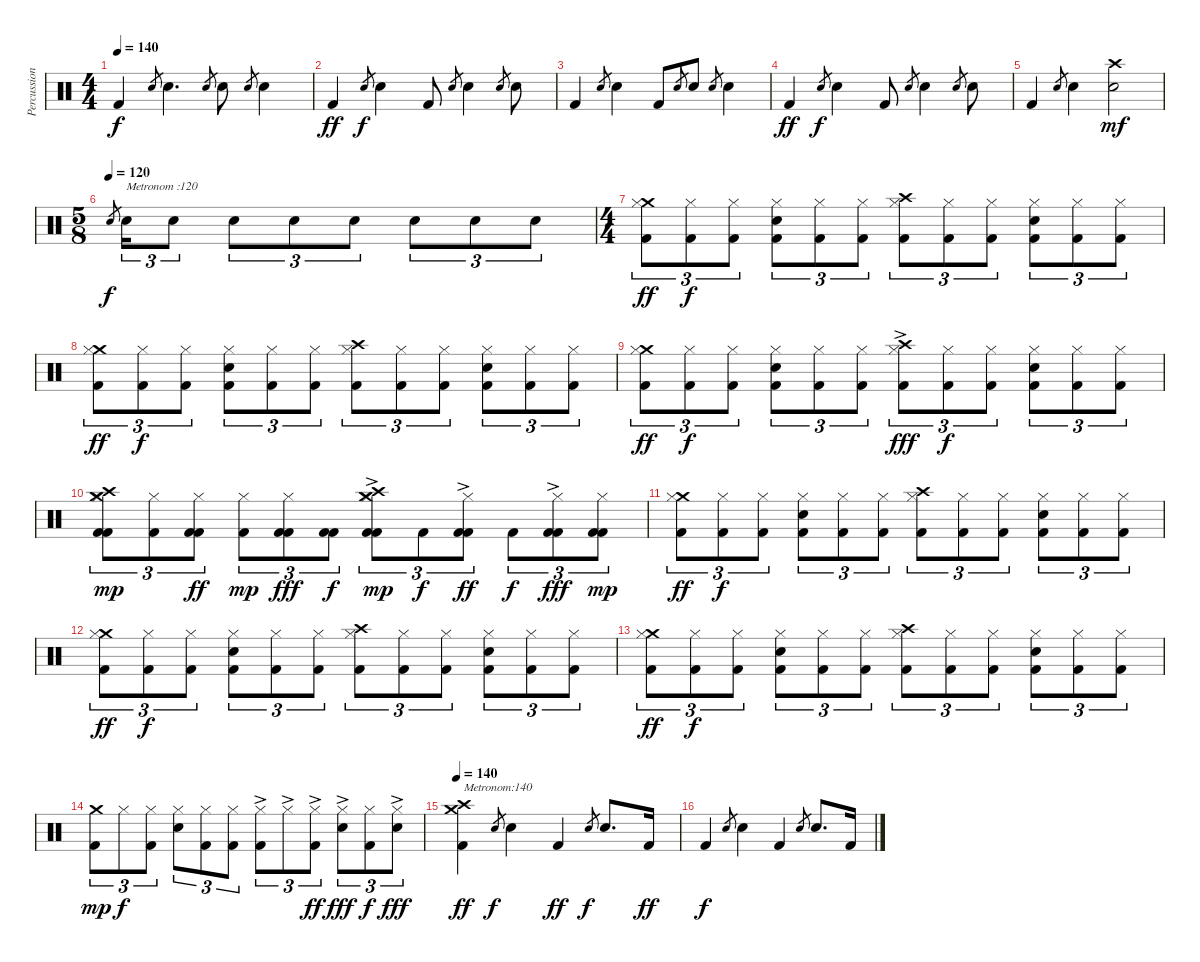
\track ("Percussion" "Percussion") {instrument percussion}
\staff {score}
\articulation defaults
\ts (4 4)
\tempo 140
\clef neutral
\ks c "Kick (hit) 2".4{dy f} "Electric Snare (hit)".8{gr} "Electric Snare (hit)".4{d} "Electric Snare (hit)".8{gr} "Electric Snare (hit)".8 "Electric Snare (hit)".8{gr} "Electric Snare (hit)".4
|
"Kick (hit) 2".4{dy ff} "Electric Snare (hit)".8{gr dy f} "Electric Snare (hit)".4 "Kick (hit) 2".8 "Electric Snare (hit)".8{gr} "Electric Snare (hit)".4 "Electric Snare (hit)".8{gr} "Electric Snare (hit)".8 |
"Kick (hit) 2".4 "Electric Snare (hit)".8{gr} "Electric Snare (hit)".4 "Kick (hit) 2".8 "Electric Snare (hit)".8{gr} "Electric Snare (hit)".8 "Electric Snare (hit)".8{gr} "Electric Snare (hit)".4 |
"Kick (hit) 2".4{dy ff} "Electric Snare (hit)".8{gr dy f} "Electric Snare (hit)".4 "Kick (hit) 2".8 "Electric Snare (hit)".8{gr} "Electric Snare (hit)".4 "Electric Snare (hit)".8{gr} "Electric Snare (hit)".8 |
"Kick (hit) 2".4 "Electric Snare (hit)".8{gr} "Electric Snare (hit)".4 ("Crash high (hit)" "Electric Snare (hit)").2{dy mf} |
\ts (5 8)
\tempo (120)
"Electric Snare (hit)".8{gr dy f} "Electric Snare (hit)".16{tu (3 2) txt "Metronom :120"} "Electric Snare (hit)".8{tu (3 2)} "Electric Snare (hit)".8{tu (3 2)} "Electric Snare (hit)".8{tu (3 2)} "Electric Snare (hit)".8{tu (3 2)} "Electric Snare (hit)".8{tu (3 2)} "Electric Snare (hit)".8{tu (3 2)} "Electric Snare (hit)".8{tu (3 2)} |
\ts (4 4)
("Crash medium (hit)" "Hi-Hat (closed)" "Kick (hit) 2").8{tu (3 2) dy ff} ("Hi-Hat (closed)" "Kick (hit) 2").8{tu (3 2) dy f} ("Hi-Hat (closed)" "Kick (hit) 2").8{tu (3 2)} ("Electric Snare (hit)" "Hi-Hat (closed)" "Kick (hit) 2").8{tu (3 2)} ("Hi-Hat (closed)" "Kick (hit) 2").8{tu (3 2)} ("Hi-Hat (closed)" "Kick (hit) 2").8{tu (3 2)} ("Crash high (hit)" "Hi-Hat (closed)" "Kick (hit) 2").8{tu (3 2)} ("Hi-Hat (closed)" "Kick (hit) 2").8{tu (3 2)} ("Hi-Hat (closed)" "Kick (hit) 2").8{tu (3 2)} ("Electric Snare (hit)" "Hi-Hat (closed)" "Kick (hit) 2").8{tu (3 2)} ("Hi-Hat (closed)" "Kick (hit) 2").8{tu (3 2)} ("Hi-Hat (closed)" "Kick (hit) 2").8{tu (3 2)} |
("Crash medium (hit)" "Hi-Hat (closed)" "Kick (hit) 2").8{tu (3 2) dy ff} ("Hi-Hat (closed)" "Kick (hit) 2").8{tu (3 2) dy f} ("Hi-Hat (closed)" "Kick (hit) 2").8{tu (3 2)} ("Electric Snare (hit)" "Hi-Hat (closed)" "Kick (hit) 2").8{tu (3 2)} ("Hi-Hat (closed)" "Kick (hit) 2").8{tu (3 2)} ("Hi-Hat (closed)" "Kick (hit) 2").8{tu (3 2)} ("Crash high (hit)" "Hi-Hat (closed)" "Kick (hit) 2").8{tu (3 2)} ("Hi-Hat (closed)" "Kick (hit) 2").8{tu (3 2)} ("Hi-Hat (closed)" "Kick (hit) 2").8{tu (3 2)} ("Electric Snare (hit)" "Hi-Hat (closed)" "Kick (hit) 2").8{tu (3 2)} ("Hi-Hat (closed)" "Kick (hit) 2").8{tu (3 2)} ("Hi-Hat (closed)" "Kick (hit) 2").8{tu (3 2)} |
("Crash medium (hit)" "Hi-Hat (closed)" "Kick (hit) 2").8{tu (3 2) dy ff} ("Hi-Hat (closed)" "Kick (hit) 2").8{tu (3 2) dy f} ("Hi-Hat (closed)" "Kick (hit) 2").8{tu (3 2)} ("Electric Snare (hit)" "Hi-Hat (closed)" "Kick (hit) 2").8{tu (3 2)} ("Hi-Hat (closed)" "Kick (hit) 2").8{tu (3 2)} ("Hi-Hat (closed)" "Kick (hit) 2").8{tu (3 2)} ("Crash high (hit)" "Hi-Hat (closed)"{ac} "Kick (hit) 2").8{tu (3 2) dy fff} ("Hi-Hat (closed)" "Kick (hit) 2").8{tu (3 2) dy f} ("Hi-Hat (closed)" "Kick (hit) 2").8{tu (3 2)} ("Electric Snare (hit)" "Hi-Hat (closed)" "Kick (hit) 2").8{tu (3 2)} ("Hi-Hat (closed)" "Kick (hit) 2").8{tu (3 2)} ("Hi-Hat (closed)" "Kick (hit) 2").8{tu (3 2)} |
("Crash high (hit)" "Crash medium (hit)" "Hi-Hat (closed)" "Kick (hit) 2" "Kick (hit) 2").8{tu (3 2) dy mp} ("Hi-Hat (closed)" "Kick (hit) 2").8{tu (3 2)} ("Hi-Hat (closed)" "Kick (hit) 2" "Kick (hit) 2").8{tu (3 2) dy ff} ("Hi-Hat (closed)" "Kick (hit) 2").8{tu (3 2) dy mp} ("Hi-Hat (closed)" "Kick (hit) 2" "Kick (hit) 2").8{tu (3 2) dy fff} ("Kick (hit) 2" "Kick (hit) 2").8{tu (3 2) dy f} ("Crash medium (hit)" "Crash high (hit)" "Hi-Hat (closed)"{ac} "Kick (hit) 2" "Kick (hit) 2").8{tu (3 2) dy mp} "Kick (hit) 2".8{tu (3 2) dy f} ("Hi-Hat (closed)"{ac} "Kick (hit) 2" "Kick (hit) 2").8{tu (3 2) dy ff} "Kick (hit) 2".8{tu (3 2) dy f} ("Hi-Hat (closed)"{ac} "Kick (hit) 2" "Kick (hit) 2").8{tu (3 2) dy fff} ("Hi-Hat (closed)" "Kick (hit) 2" "Kick (hit) 2").8{tu (3 2) dy mp} |
("Crash medium (hit)" "Hi-Hat (closed)" "Kick (hit) 2").8{tu (3 2) dy ff} ("Hi-Hat (closed)" "Kick (hit) 2").8{tu (3 2) dy f} ("Hi-Hat (closed)" "Kick (hit) 2").8{tu (3 2)} ("Electric Snare (hit)" "Hi-Hat (closed)" "Kick (hit) 2").8{tu (3 2)} ("Hi-Hat (closed)" "Kick (hit) 2").8{tu (3 2)} ("Hi-Hat (closed)" "Kick (hit) 2").8{tu (3 2)} ("Crash high (hit)" "Hi-Hat (closed)" "Kick (hit) 2").8{tu (3 2)} ("Hi-Hat (closed)" "Kick (hit) 2").8{tu (3 2)} ("Hi-Hat (closed)" "Kick (hit) 2").8{tu (3 2)} ("Electric Snare (hit)" "Hi-Hat (closed)" "Kick (hit) 2").8{tu (3 2)} ("Hi-Hat (closed)" "Kick (hit) 2").8{tu (3 2)} ("Hi-Hat (closed)" "Kick (hit) 2").8{tu (3 2)} |
("Crash medium (hit)" "Hi-Hat (closed)" "Kick (hit) 2").8{tu (3 2) dy ff} ("Hi-Hat (closed)" "Kick (hit) 2").8{tu (3 2) dy f} ("Hi-Hat (closed)" "Kick (hit) 2").8{tu (3 2)} ("Electric Snare (hit)" "Hi-Hat (closed)" "Kick (hit) 2").8{tu (3 2)} ("Hi-Hat (closed)" "Kick (hit) 2").8{tu (3 2)} ("Hi-Hat (closed)" "Kick (hit) 2").8{tu (3 2)} ("Crash high (hit)" "Hi-Hat (closed)" "Kick (hit) 2").8{tu (3 2)} ("Hi-Hat (closed)" "Kick (hit) 2").8{tu (3 2)} ("Hi-Hat (closed)" "Kick (hit) 2").8{tu (3 2)} ("Electric Snare (hit)" "Hi-Hat (closed)" "Kick (hit) 2").8{tu (3 2)} ("Hi-Hat (closed)" "Kick (hit) 2").8{tu (3 2)} ("Hi-Hat (closed)" "Kick (hit) 2").8{tu (3 2)} |
("Crash medium (hit)" "Hi-Hat (closed)" "Kick (hit) 2").8{tu (3 2) dy ff} ("Hi-Hat (closed)" "Kick (hit) 2").8{tu (3 2) dy f} ("Hi-Hat (closed)" "Kick (hit) 2").8{tu (3 2)} ("Electric Snare (hit)" "Hi-Hat (closed)" "Kick (hit) 2").8{tu (3 2)} ("Hi-Hat (closed)" "Kick (hit) 2").8{tu (3 2)} ("Hi-Hat (closed)" "Kick (hit) 2").8{tu (3 2)} ("Crash high (hit)" "Hi-Hat (closed)" "Kick (hit) 2").8{tu (3 2)} ("Hi-Hat (closed)" "Kick (hit) 2").8{tu (3 2)} ("Hi-Hat (closed)" "Kick (hit) 2").8{tu (3 2)} ("Electric Snare (hit)" "Hi-Hat (closed)" "Kick (hit) 2").8{tu (3 2)} ("Hi-Hat (closed)" "Kick (hit) 2").8{tu (3 2)} ("Hi-Hat (closed)" "Kick (hit) 2").8{tu (3 2)} |
("Crash medium (hit)" "Kick (hit) 2").8{tu (3 2) dy mp} "Hi-Hat (closed)".8{tu (3 2) dy f} ("Hi-Hat (closed)" "Kick (hit) 2").8{tu (3 2)} ("Hi-Hat (closed)" "Electric Snare (hit)").8{tu (3 2)} ("Hi-Hat (closed)" "Kick (hit) 2").8{tu (3 2)} ("Hi-Hat (closed)" "Kick (hit) 2").8{tu (3 2)} ("Hi-Hat (closed)"{ac} "Kick (hit) 2").8{tu (3 2)} "Hi-Hat (closed)"{ac}.8{tu (3 2)} ("Hi-Hat (closed)"{ac} "Kick (hit) 2").8{tu (3 2) dy ff} ("Hi-Hat (closed)"{ac} "Electric Snare (hit)").8{tu (3 2) dy fff} ("Hi-Hat (closed)" "Kick (hit) 2").8{tu (3 2) dy f} ("Hi-Hat (closed)"{ac} "Electric Snare (hit)").8{tu (3 2) dy fff} |
\tempo 140
("Crash medium (hit)" "Crash high (hit)" "Kick (hit) 2").4{txt "Metronom:140" dy ff} "Electric Snare (hit)".8{gr dy f} "Electric Snare (hit)".4 "Kick (hit) 2".4{dy ff} "Electric Snare (hit)".8{gr dy f} "Electric Snare (hit)".8{d} "Kick (hit) 2".16{dy ff} |
"Kick (hit) 2".4{dy f} "Electric Snare (hit)".8{gr} "Electric Snare (hit)".4 "Kick (hit) 2".4 "Electric Snare (hit)".8{gr} "Electric Snare (hit)".8{d} "Kick (hit) 2".16
